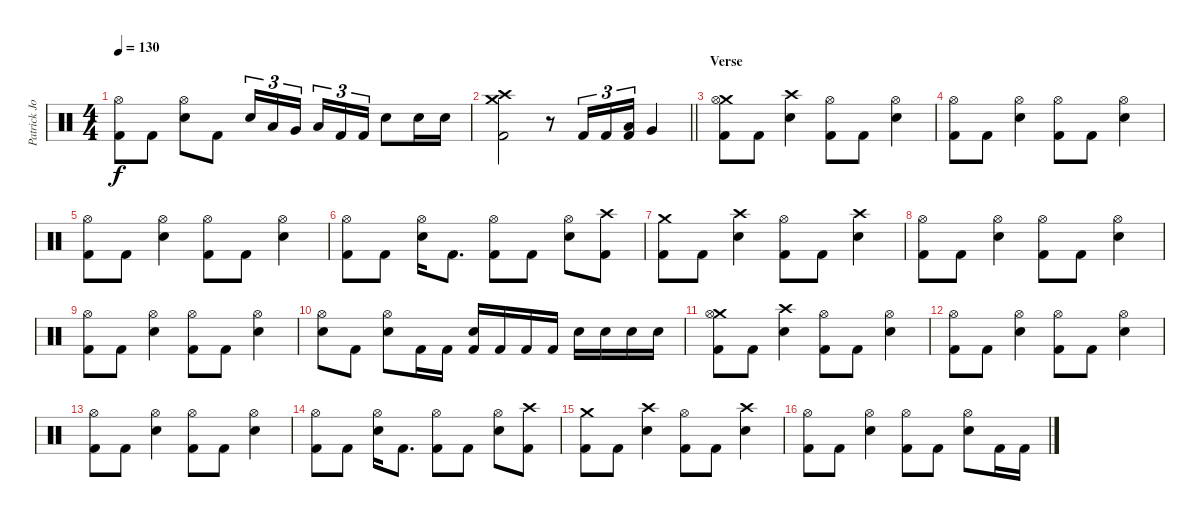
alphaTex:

\track ("Patrick Johansson " "Patrick Jo") {instrument percussion}
\staff {score}
\articulation defaults
\ts (4 4)
\tempo 130
\clef neutral
\ks c
("Hi-Hat (open)" "Kick (hit) 2").8{dy f} "Kick (hit) 2".8 ("Hi-Hat (open)" "Snare (hit) 2").8 "Kick (hit) 2".8 "Snare (hit) 2".16{tu (3 2)} "Low Tom (hit)".16{tu (3 2)} "Very Low Tom (hit)".16{tu (3 2) beam splitsecondary} "Low Floor Tom (hit)".16{tu (3 2)} "Kick (hit) 2".16{tu (3 2)} "Kick (hit) 2".16{tu (3 2)} "Snare (hit) 2".8 "Snare (hit) 2".16 "Snare (hit) 2".16 |
\barLineRight lightlight
("Crash medium (hit)" "Crash high (hit)" "Kick (hit) 2").2 r.8 "Kick (hit) 2".16{tu (3 2)} "Kick (hit) 2".16{tu (3 2)} ("Low Tom (hit)" "Kick (hit) 2").16{tu (3 2)} "Very Low Tom (hit)".4 |
\section ("" "Verse")
("Crash medium (hit)" "Hi-Hat (open)" "Kick (hit) 2").8 "Kick (hit) 2".8 ("Crash high (hit)" "Snare (hit) 2").4 ("Hi-Hat (open)" "Kick (hit) 2").8 "Kick (hit) 2".8 ("Hi-Hat (open)" "Snare (hit) 2").4 |
("Hi-Hat (open)" "Kick (hit) 2").8 "Kick (hit) 2".8 ("Hi-Hat (open)" "Snare (hit) 2").4 ("Hi-Hat (open)" "Kick (hit) 2").8 "Kick (hit) 2".8 ("Hi-Hat (open)" "Snare (hit) 2").4 |
("Hi-Hat (open)" "Kick (hit) 2").8 "Kick (hit) 2".8 ("Hi-Hat (open)" "Snare (hit) 2").4 ("Hi-Hat (open)" "Kick (hit) 2").8 "Kick (hit) 2".8 ("Hi-Hat (open)" "Snare (hit) 2").4 |
("Hi-Hat (open)" "Kick (hit) 2").8 "Kick (hit) 2".8 ("Hi-Hat (open)" "Snare (hit) 2").16 "Kick (hit) 2".8{d} ("Hi-Hat (open)" "Kick (hit) 2").8 "Kick (hit) 2".8 ("Hi-Hat (open)" "Snare (hit) 2").8 ("Crash high (hit)" "Kick (hit) 2").8 |
("Crash medium (hit)" "Kick (hit) 2").8 "Kick (hit) 2".8 ("Crash high (hit)" "Snare (hit) 2").4 ("Hi-Hat (open)" "Kick (hit) 2").8 "Kick (hit) 2".8 ("Crash high (hit)" "Snare (hit) 2").4 |
("Hi-Hat (open)" "Kick (hit) 2").8 "Kick (hit) 2".8 ("Hi-Hat (open)" "Snare (hit) 2").4 ("Hi-Hat (open)" "Kick (hit) 2").8 "Kick (hit) 2".8 ("Hi-Hat (open)" "Snare (hit) 2").4 |
("Hi-Hat (open)" "Kick (hit) 2").8 "Kick (hit) 2".8 ("Hi-Hat (open)" "Snare (hit) 2").4 ("Hi-Hat (open)" "Kick (hit) 2").8 "Kick (hit) 2".8 ("Hi-Hat (open)" "Snare (hit) 2").4 |
("Hi-Hat (open)" "Snare (hit) 2").8 "Kick (hit) 2".8 ("Hi-Hat (open)" "Snare (hit) 2").8 "Kick (hit) 2".16 "Kick (hit) 2".16 ("Snare (hit) 2" "Kick (hit) 2").16 "Kick (hit) 2".16 "Kick (hit) 2".16 "Kick (hit) 2".16 "Snare (hit) 2".16 "Snare (hit) 2".16 "Snare (hit) 2".16 "Snare (hit) 2".16 |
("Crash medium (hit)" "Hi-Hat (open)" "Kick (hit) 2").8 "Kick (hit) 2".8 ("Crash high (hit)" "Snare (hit) 2").4 ("Hi-Hat (open)" "Kick (hit) 2").8 "Kick (hit) 2".8 ("Hi-Hat (open)" "Snare (hit) 2").4 |
("Hi-Hat (open)" "Kick (hit) 2").8 "Kick (hit) 2".8 ("Hi-Hat (open)" "Snare (hit) 2").4 ("Hi-Hat (open)" "Kick (hit) 2").8 "Kick (hit) 2".8 ("Hi-Hat (open)" "Snare (hit) 2").4 |
("Hi-Hat (open)" "Kick (hit) 2").8 "Kick (hit) 2".8 ("Hi-Hat (open)" "Snare (hit) 2").4 ("Hi-Hat (open)" "Kick (hit) 2").8 "Kick (hit) 2".8 ("Hi-Hat (open)" "Snare (hit) 2").4 |
("Hi-Hat (open)" "Kick (hit) 2").8 "Kick (hit) 2".8 ("Hi-Hat (open)" "Snare (hit) 2").16 "Kick (hit) 2".8{d} ("Hi-Hat (open)" "Kick (hit) 2").8 "Kick (hit) 2".8 ("Hi-Hat (open)" "Snare (hit) 2").8 ("Crash high (hit)" "Kick (hit) 2").8 |
("Crash medium (hit)" "Kick (hit) 2").8 "Kick (hit) 2".8 ("Crash high (hit)" "Snare (hit) 2").4 ("Hi-Hat (open)" "Kick (hit) 2").8 "Kick (hit) 2".8 ("Crash high (hit)" "Snare (hit) 2").4 |
("Hi-Hat (open)" "Kick (hit) 2").8 "Kick (hit) 2".8 ("Hi-Hat (open)" "Snare (hit) 2").4 ("Hi-Hat (open)" "Kick (hit) 2").8 "Kick (hit) 2".8 ("Hi-Hat (open)" "Snare (hit) 2").8 "Kick (hit) 2".16 "Kick (hit) 2".16
